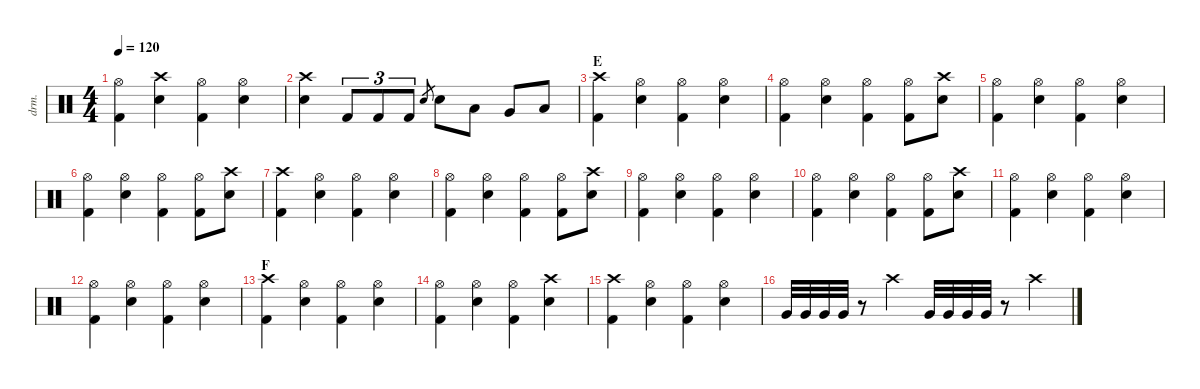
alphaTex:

\defaultSystemsLayout 4
\hideDynamics
\bracketExtendMode nobrackets
\track ("Drums" "drm.") {instrument percussion}
\staff {score}
\articulation defaults
\ts (4 4)
\tempo 120
\clef neutral
\ks c
("Hi-Hat (open)" "Kick (hit) 2").4{dy f} ("Crash high (hit)" "Snare (hit) 2").4 ("Hi-Hat (open)" "Kick (hit) 2").4 ("Hi-Hat (open)" "Snare (hit) 2").4 |
("Crash high (hit)" "Snare (hit) 2").4 "Kick (hit) 2".8{tu (3 2)} "Kick (hit) 2".8{tu (3 2)} "Kick (hit) 2".8{tu (3 2)} "Electric Snare (hit)".8{gr dy mf} "Snare (hit) 2".8{dy f} "Low Tom (hit)".8 "Very Low Tom (hit)".8 "Low Floor Tom (hit)".8 |
\section ("" "E")
("Crash high (hit)" "Kick (hit) 2").4 ("Hi-Hat (open)" "Snare (hit) 2").4 ("Hi-Hat (open)" "Kick (hit) 2").4 ("Hi-Hat (open)" "Snare (hit) 2").4 |
("Hi-Hat (open)" "Kick (hit) 2").4 ("Hi-Hat (open)" "Snare (hit) 2").4 ("Hi-Hat (open)" "Kick (hit) 2").4 ("Hi-Hat (open)" "Kick (hit) 2").8 ("Crash high (hit)" "Snare (hit) 2").8 |
("Hi-Hat (open)" "Kick (hit) 2").4 ("Hi-Hat (open)" "Snare (hit) 2").4 ("Hi-Hat (open)" "Kick (hit) 2").4 ("Hi-Hat (open)" "Snare (hit) 2").4 |
("Hi-Hat (open)" "Kick (hit) 2").4 ("Hi-Hat (open)" "Snare (hit) 2").4 ("Hi-Hat (open)" "Kick (hit) 2").4 ("Hi-Hat (open)" "Kick (hit) 2").8 ("Crash high (hit)" "Snare (hit) 2").8 |
("Crash high (hit)" "Kick (hit) 2").4 ("Hi-Hat (open)" "Snare (hit) 2").4 ("Hi-Hat (open)" "Kick (hit) 2").4 ("Hi-Hat (open)" "Snare (hit) 2").4 |
("Hi-Hat (open)" "Kick (hit) 2").4 ("Hi-Hat (open)" "Snare (hit) 2").4 ("Hi-Hat (open)" "Kick (hit) 2").4 ("Hi-Hat (open)" "Kick (hit) 2").8 ("Crash high (hit)" "Snare (hit) 2").8 |
("Hi-Hat (open)" "Kick (hit) 2").4 ("Hi-Hat (open)" "Snare (hit) 2").4 ("Hi-Hat (open)" "Kick (hit) 2").4 ("Hi-Hat (open)" "Snare (hit) 2").4 |
("Hi-Hat (open)" "Kick (hit) 2").4 ("Hi-Hat (open)" "Snare (hit) 2").4 ("Hi-Hat (open)" "Kick (hit) 2").4 ("Hi-Hat (open)" "Kick (hit) 2").8 ("Crash high (hit)" "Snare (hit) 2").8 |
("Hi-Hat (open)" "Kick (hit) 2").4 ("Hi-Hat (open)" "Snare (hit) 2").4 ("Hi-Hat (open)" "Kick (hit) 2").4 ("Hi-Hat (open)" "Snare (hit) 2").4 |
("Hi-Hat (open)" "Kick (hit) 2").4 ("Hi-Hat (open)" "Snare (hit) 2").4 ("Hi-Hat (open)" "Kick (hit) 2").4 ("Hi-Hat (open)" "Snare (hit) 2").4 |
\section ("" "F")
("Crash high (hit)" "Kick (hit) 2").4 ("Hi-Hat (open)" "Snare (hit) 2").4 ("Hi-Hat (open)" "Kick (hit) 2").4 ("Hi-Hat (open)" "Snare (hit) 2").4 |
("Hi-Hat (open)" "Kick (hit) 2").4 ("Hi-Hat (open)" "Snare (hit) 2").4 ("Hi-Hat (open)" "Kick (hit) 2").4 ("Crash high (hit)" "Snare (hit) 2").4 |
("Crash high (hit)" "Kick (hit) 2").4 ("Hi-Hat (open)" "Snare (hit) 2").4 ("Hi-Hat (open)" "Kick (hit) 2").4 ("Hi-Hat (open)" "Snare (hit) 2").4 |
"Very Low Tom (hit)".32 "Very Low Tom (hit)".32 "Very Low Tom (hit)".32 "Very Low Tom (hit)".32 r.8 "Crash high (hit)".4 "Very Low Tom (hit)".32 "Very Low Tom (hit)".32 "Very Low Tom (hit)".32 "Very Low Tom (hit)".32 r.8 "Crash high (hit)".4
